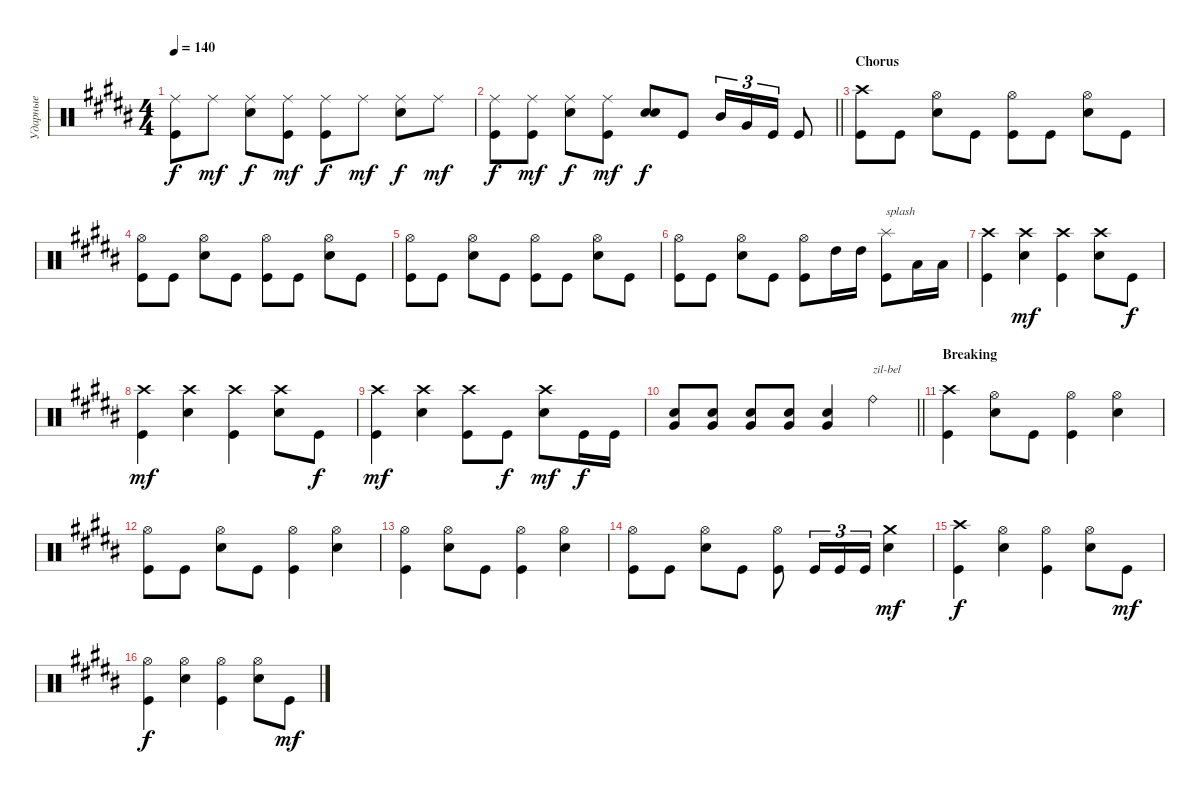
\track ("Ударные" "Ударные") {instrument percussion}
\staff {score}
\articulation defaults
\ts (4 4)
\tempo 140
\clef neutral
\ks g#minor
("Kick (hit)" "Ride (middle)").8{dy f} "Ride (middle)".8{dy mf} ("Ride (middle)" "Snare (hit) 2").8{dy f} ("Ride (middle)" "Kick (hit)").8{dy mf} ("Ride (middle)" "Kick (hit)").8{dy f} "Ride (middle)".8{dy mf} ("Ride (middle)" "Snare (hit) 2").8{dy f} "Ride (middle)".8{dy mf} |
\barLineRight lightlight
("Kick (hit)" "Ride (middle)").8{dy f} ("Kick (hit)" "Ride (middle)").8{dy mf} ("Ride (middle)" "Snare (hit) 2").8{dy f} ("Ride (middle)" "Kick (hit)").8{dy mf} ("Snare (hit) 2" "Snare (hit) 2").8{bd 240 dy f} "Kick (hit)".8 "Mid Tom (hit)".16{tu (3 2)} "Very Low Tom (hit)".16{tu (3 2)} "Kick (hit)".16{tu (3 2)} "Kick (hit)".8 |
\section ("" "Chorus")
("Kick (hit)" "Crash high (hit)").8 "Kick (hit)".8 ("Snare (hit) 2" "Hi-Hat (open)").8 "Kick (hit)".8 ("Kick (hit)" "Hi-Hat (open)").8 "Kick (hit)".8 ("Snare (hit) 2" "Hi-Hat (open)").8 "Kick (hit)".8 |
("Kick (hit)" "Hi-Hat (open)").8 "Kick (hit)".8 ("Snare (hit) 2" "Hi-Hat (open)").8 "Kick (hit)".8 ("Kick (hit)" "Hi-Hat (open)").8 "Kick (hit)".8 ("Snare (hit) 2" "Hi-Hat (open)").8 "Kick (hit)".8 |
("Kick (hit)" "Hi-Hat (open)").8 "Kick (hit)".8 ("Snare (hit) 2" "Hi-Hat (open)").8 "Kick (hit)".8 ("Kick (hit)" "Hi-Hat (open)").8 "Kick (hit)".8 ("Snare (hit) 2" "Hi-Hat (open)").8 "Kick (hit)".8 |
("Kick (hit)" "Hi-Hat (open)").8 "Kick (hit)".8 ("Snare (hit) 2" "Hi-Hat (open)").8 "Kick (hit)".8 ("Kick (hit)" "Hi-Hat (open)").8 "High Tom (hit)".16 "High Tom (hit)".16 ("Kick (hit)" "Splash (hit)").8{txt "splash"} "Low Tom (hit)".16 "Low Tom (hit)".16 |
("Kick (hit)" "Crash high (hit)").4 ("Snare (hit) 2" "Crash high (hit)").4{dy mf} ("Kick (hit)" "Crash high (hit)").4 ("Snare (hit) 2" "Crash high (hit)").8 "Kick (hit)".8{dy f} |
("Kick (hit)" "Crash high (hit)").4{dy mf} ("Snare (hit) 2" "Crash high (hit)").4 ("Kick (hit)" "Crash high (hit)").4 ("Snare (hit) 2" "Crash high (hit)").8 "Kick (hit)".8{dy f} |
("Kick (hit)" "Crash high (hit)").4{dy mf} ("Snare (hit) 2" "Crash high (hit)").4 ("Kick (hit)" "Crash high (hit)").8 "Kick (hit)".8{dy f} ("Snare (hit) 2" "Crash high (hit)").8{dy mf} "Kick (hit)".16{dy f} "Kick (hit)".16 |
\barLineRight lightlight
("Very Low Tom (hit)" "Snare (hit) 2").8{bd 60} ("Very Low Tom (hit)" "Snare (hit) 2").8{bd 60} ("Very Low Tom (hit)" "Snare (hit) 2").8{bd 60} ("Very Low Tom (hit)" "Snare (hit) 2").8{bd 60} ("Very Low Tom (hit)" "Snare (hit) 2").4{bd 60} "Ride (bell)".4{txt "zil-bel"} |
\section ("" "Breaking")
("Kick (hit)" "Crash high (hit)").4 ("Hi-Hat (open)" "Snare (hit) 2").8 "Kick (hit)".8 ("Kick (hit)" "Hi-Hat (open)").4 ("Hi-Hat (open)" "Snare (hit) 2").4 |
("Kick (hit)" "Hi-Hat (open)").8 "Kick (hit)".8 ("Hi-Hat (open)" "Snare (hit) 2").8 "Kick (hit)".8 ("Hi-Hat (open)" "Kick (hit)").4 ("Hi-Hat (open)" "Snare (hit) 2").4 |
("Kick (hit)" "Hi-Hat (open)").4 ("Hi-Hat (open)" "Snare (hit) 2").8 "Kick (hit)".8 ("Hi-Hat (open)" "Kick (hit)").4 ("Hi-Hat (open)" "Snare (hit) 2").4 |
("Kick (hit)" "Hi-Hat (open)").8 "Kick (hit)".8 ("Hi-Hat (open)" "Snare (hit) 2").8 "Kick (hit)".8 ("Hi-Hat (open)" "Kick (hit)").8 "Kick (hit)".16{tu (3 2)} "Kick (hit)".16{tu (3 2)} "Kick (hit)".16{tu (3 2)} ("Crash medium (hit)" "Snare (hit) 2").4{dy mf} |
("Kick (hit)" "Crash high (hit)").4{dy f} ("Hi-Hat (open)" "Snare (hit) 2").4 ("Hi-Hat (open)" "Kick (hit)").4 ("Hi-Hat (open)" "Snare (hit) 2").8 "Kick (hit)".8{dy mf} |
("Kick (hit)" "Hi-Hat (open)").4{dy f} ("Hi-Hat (open)" "Snare (hit) 2").4 ("Hi-Hat (open)" "Kick (hit)").4 ("Hi-Hat (open)" "Snare (hit) 2").8 "Kick (hit)".8{dy mf}
